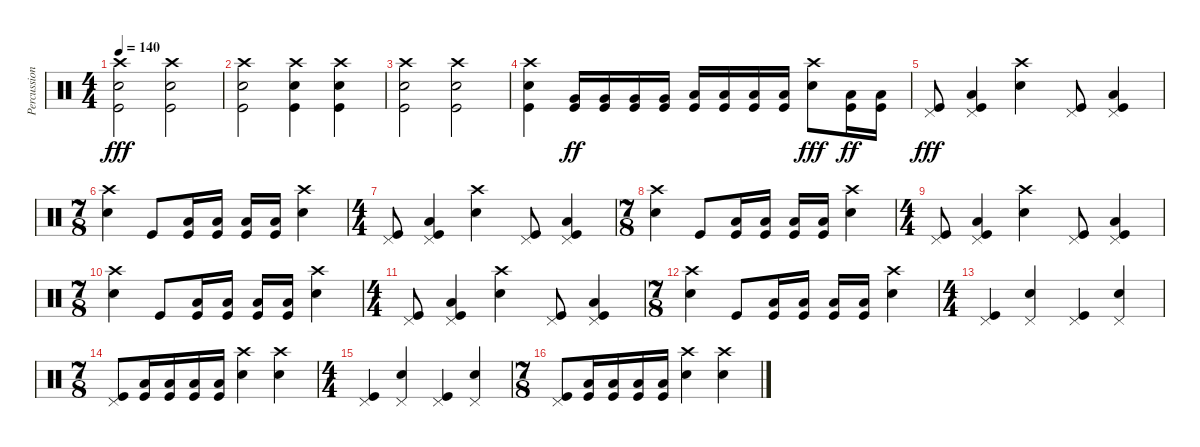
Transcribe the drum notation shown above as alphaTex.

\track ("Percussion" "Percussion") {instrument percussion}
\staff {score}
\articulation defaults
\ts (4 4)
\tempo 140
\clef neutral
\ks c
("Crash high (hit)" "Kick (hit)" "Snare (hit) 2").2{dy fff} ("Crash high (hit)" "Kick (hit)" "Snare (hit) 2").2 |
("Crash high (hit)" "Kick (hit)" "Snare (hit) 2").2 ("Crash high (hit)" "Kick (hit)" "Snare (hit) 2").4 ("Crash high (hit)" "Kick (hit)" "Snare (hit) 2").4 |
("Crash high (hit)" "Kick (hit)" "Snare (hit) 2").2 ("Crash high (hit)" "Kick (hit)" "Snare (hit) 2").2 |
("Crash high (hit)" "Kick (hit)" "Snare (hit) 2").4 ("Kick (hit)" "Very Low Tom (hit)").16{dy ff} ("Kick (hit)" "Very Low Tom (hit)").16 ("Kick (hit)" "Very Low Tom (hit)").16 ("Kick (hit)" "Very Low Tom (hit)").16 ("Kick (hit)" "Low Tom (hit)").16 ("Kick (hit)" "Low Tom (hit)").16 ("Kick (hit)" "Low Tom (hit)").16 ("Kick (hit)" "Low Tom (hit)").16 ("Crash high (hit)" "Snare (hit) 2").8{dy fff} ("Kick (hit)" "Low Tom (hit)").16{dy ff} ("Kick (hit)" "Low Tom (hit)").16 |
("Pedal Hi-Hat (hit)" "Kick (hit)").8{dy fff} ("Pedal Hi-Hat (hit)" "Kick (hit)" "Low Tom (hit)").4 ("Crash high (hit)" "Snare (hit) 2").4 ("Pedal Hi-Hat (hit)" "Kick (hit)").8 ("Pedal Hi-Hat (hit)" "Kick (hit)" "Low Tom (hit)").4 |
\ts (7 8)
("Crash high (hit)" "Snare (hit) 2").4 "Kick (hit)".8 ("Kick (hit)" "Low Tom (hit)").16 ("Kick (hit)" "Low Tom (hit)").16 ("Kick (hit)" "Low Tom (hit)").16 ("Kick (hit)" "Low Tom (hit)").16 ("Crash high (hit)" "Snare (hit) 2").4 |
\ts (4 4)
("Pedal Hi-Hat (hit)" "Kick (hit)").8 ("Pedal Hi-Hat (hit)" "Kick (hit)" "Low Tom (hit)").4 ("Crash high (hit)" "Snare (hit) 2").4 ("Pedal Hi-Hat (hit)" "Kick (hit)").8 ("Pedal Hi-Hat (hit)" "Kick (hit)" "Low Tom (hit)").4 |
\ts (7 8)
("Crash high (hit)" "Snare (hit) 2").4 "Kick (hit)".8 ("Kick (hit)" "Low Tom (hit)").16 ("Kick (hit)" "Low Tom (hit)").16 ("Kick (hit)" "Low Tom (hit)").16 ("Kick (hit)" "Low Tom (hit)").16 ("Crash high (hit)" "Snare (hit) 2").4 |
\ts (4 4)
("Pedal Hi-Hat (hit)" "Kick (hit)").8 ("Pedal Hi-Hat (hit)" "Kick (hit)" "Low Tom (hit)").4 ("Crash high (hit)" "Snare (hit) 2").4 ("Pedal Hi-Hat (hit)" "Kick (hit)").8 ("Pedal Hi-Hat (hit)" "Kick (hit)" "Low Tom (hit)").4 |
\ts (7 8)
("Crash high (hit)" "Snare (hit) 2").4 "Kick (hit)".8 ("Kick (hit)" "Low Tom (hit)").16 ("Kick (hit)" "Low Tom (hit)").16 ("Kick (hit)" "Low Tom (hit)").16 ("Kick (hit)" "Low Tom (hit)").16 ("Crash high (hit)" "Snare (hit) 2").4 |
\ts (4 4)
("Pedal Hi-Hat (hit)" "Kick (hit)").8 ("Pedal Hi-Hat (hit)" "Kick (hit)" "Low Tom (hit)").4 ("Crash high (hit)" "Snare (hit) 2").4 ("Pedal Hi-Hat (hit)" "Kick (hit)").8 ("Pedal Hi-Hat (hit)" "Kick (hit)" "Low Tom (hit)").4 |
\ts (7 8)
("Crash high (hit)" "Snare (hit) 2").4 "Kick (hit)".8 ("Kick (hit)" "Low Tom (hit)").16 ("Kick (hit)" "Low Tom (hit)").16 ("Kick (hit)" "Low Tom (hit)").16 ("Kick (hit)" "Low Tom (hit)").16 ("Crash high (hit)" "Snare (hit) 2").4 |
\ts (4 4)
("Pedal Hi-Hat (hit)" "Kick (hit)").4 ("Pedal Hi-Hat (hit)" "Snare (hit) 2").4 ("Pedal Hi-Hat (hit)" "Kick (hit)").4 ("Pedal Hi-Hat (hit)" "Snare (hit) 2").4 |
\ts (7 8)
("Pedal Hi-Hat (hit)" "Kick (hit)").8 ("Kick (hit)" "Low Tom (hit)").16 ("Kick (hit)" "Low Tom (hit)").16 ("Kick (hit)" "Low Tom (hit)").16 ("Kick (hit)" "Low Tom (hit)").16 ("Crash high (hit)" "Snare (hit) 2").4 ("Crash high (hit)" "Snare (hit) 2").4 |
\ts (4 4)
("Pedal Hi-Hat (hit)" "Kick (hit)").4 ("Pedal Hi-Hat (hit)" "Snare (hit) 2").4 ("Pedal Hi-Hat (hit)" "Kick (hit)").4 ("Pedal Hi-Hat (hit)" "Snare (hit) 2").4 |
\ts (7 8)
("Pedal Hi-Hat (hit)" "Kick (hit)").8 ("Kick (hit)" "Low Tom (hit)").16 ("Kick (hit)" "Low Tom (hit)").16 ("Kick (hit)" "Low Tom (hit)").16 ("Kick (hit)" "Low Tom (hit)").16 ("Crash high (hit)" "Snare (hit) 2").4 ("Crash high (hit)" "Snare (hit) 2").4
